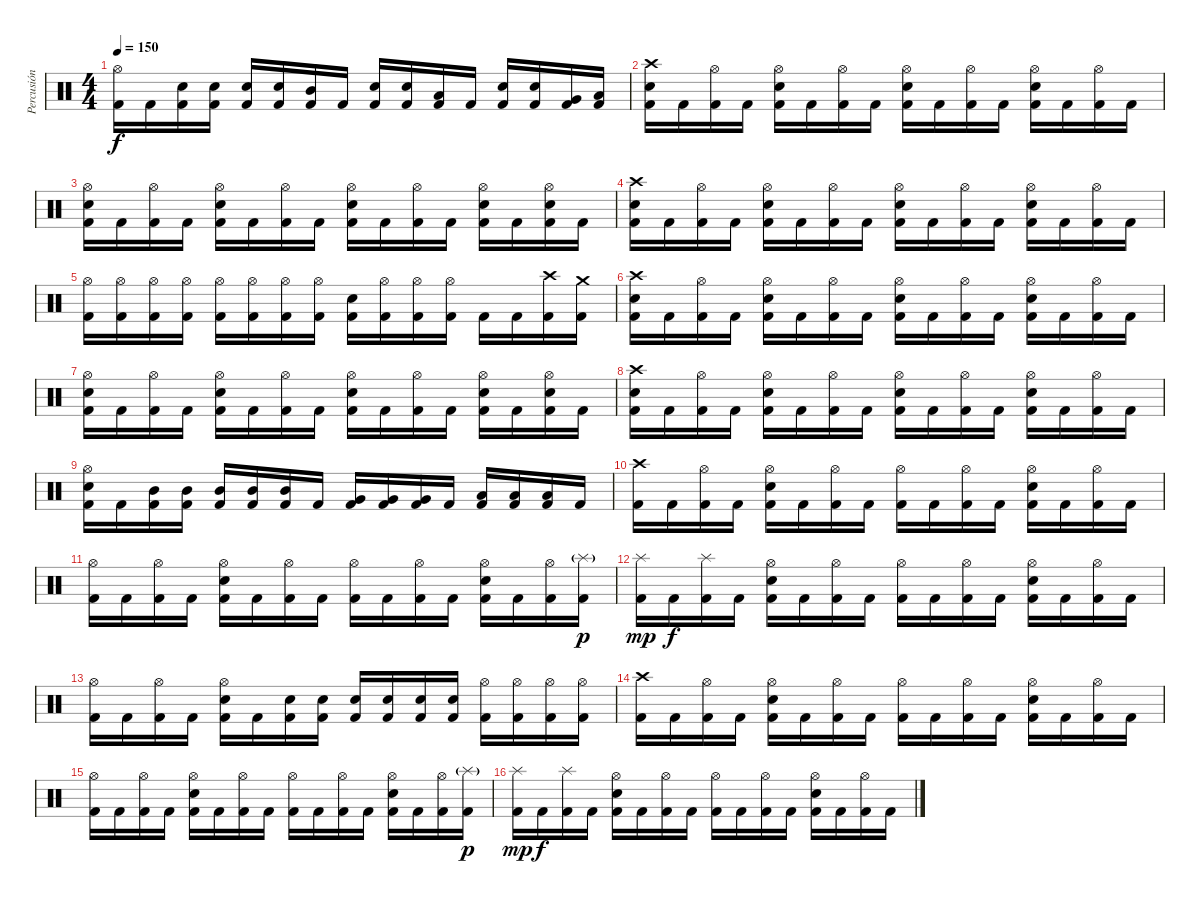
\track ("Percusión" "Percusión") {instrument percussion}
\staff {score}
\articulation defaults
\ts (4 4)
\tempo 150
\clef neutral
\ks c
("Hi-Hat (open)" "Kick (hit) 2").16{dy f} "Kick (hit) 2".16 ("Snare (hit) 2" "Kick (hit) 2").16 ("Snare (hit) 2" "Kick (hit) 2").16 ("Snare (hit) 2" "Kick (hit) 2").16 ("Snare (hit) 2" "Kick (hit) 2").16 ("Mid Tom (hit)" "Kick (hit) 2").16 "Kick (hit) 2".16 ("Snare (hit) 2" "Kick (hit) 2").16 ("Snare (hit) 2" "Kick (hit) 2").16 ("Low Tom (hit)" "Kick (hit) 2").16 "Kick (hit) 2".16 ("Snare (hit) 2" "Kick (hit) 2").16 ("Snare (hit) 2" "Kick (hit) 2").16 ("Very Low Tom (hit)" "Kick (hit) 2").16 ("Low Floor Tom (hit)" "Kick (hit) 2").16 |
("Crash high (hit)" "Snare (hit) 2" "Kick (hit) 2").16 "Kick (hit) 2".16 ("Hi-Hat (open)" "Kick (hit) 2").16 "Kick (hit) 2".16 ("Hi-Hat (open)" "Snare (hit) 2" "Kick (hit) 2").16 "Kick (hit) 2".16 ("Hi-Hat (open)" "Kick (hit) 2").16 "Kick (hit) 2".16 ("Hi-Hat (open)" "Snare (hit) 2" "Kick (hit) 2").16 "Kick (hit) 2".16 ("Hi-Hat (open)" "Kick (hit) 2").16 "Kick (hit) 2".16 ("Hi-Hat (open)" "Snare (hit) 2" "Kick (hit) 2").16 "Kick (hit) 2".16 ("Hi-Hat (open)" "Kick (hit) 2").16 "Kick (hit) 2".16 |
("Hi-Hat (open)" "Snare (hit) 2" "Kick (hit) 2").16 "Kick (hit) 2".16 ("Hi-Hat (open)" "Kick (hit) 2").16 "Kick (hit) 2".16 ("Hi-Hat (open)" "Snare (hit) 2" "Kick (hit) 2").16 "Kick (hit) 2".16 ("Hi-Hat (open)" "Kick (hit) 2").16 "Kick (hit) 2".16 ("Hi-Hat (open)" "Snare (hit) 2" "Kick (hit) 2").16 "Kick (hit) 2".16 ("Hi-Hat (open)" "Kick (hit) 2").16 "Kick (hit) 2".16 ("Hi-Hat (open)" "Snare (hit) 2" "Kick (hit) 2").16 "Kick (hit) 2".16 ("Hi-Hat (open)" "Snare (hit) 2" "Kick (hit) 2").16 "Kick (hit) 2".16 |
("Crash high (hit)" "Snare (hit) 2" "Kick (hit) 2").16 "Kick (hit) 2".16 ("Hi-Hat (open)" "Kick (hit) 2").16 "Kick (hit) 2".16 ("Hi-Hat (open)" "Snare (hit) 2" "Kick (hit) 2").16 "Kick (hit) 2".16 ("Hi-Hat (open)" "Kick (hit) 2").16 "Kick (hit) 2".16 ("Hi-Hat (open)" "Snare (hit) 2" "Kick (hit) 2").16 "Kick (hit) 2".16 ("Hi-Hat (open)" "Kick (hit) 2").16 "Kick (hit) 2".16 ("Hi-Hat (open)" "Snare (hit) 2" "Kick (hit) 2").16 "Kick (hit) 2".16 ("Hi-Hat (open)" "Kick (hit) 2").16 "Kick (hit) 2".16 |
("Hi-Hat (open)" "Kick (hit) 2").16 ("Hi-Hat (open)" "Kick (hit) 2").16 ("Hi-Hat (open)" "Kick (hit) 2").16 ("Hi-Hat (open)" "Kick (hit) 2").16 ("Hi-Hat (open)" "Kick (hit) 2").16 ("Hi-Hat (open)" "Kick (hit) 2").16 ("Hi-Hat (open)" "Kick (hit) 2").16 ("Hi-Hat (open)" "Kick (hit) 2").16 ("Snare (hit) 2" "Kick (hit) 2").16 ("Hi-Hat (open)" "Kick (hit) 2").16 ("Hi-Hat (open)" "Kick (hit) 2").16 ("Hi-Hat (open)" "Kick (hit) 2").16 "Kick (hit) 2".16 "Kick (hit) 2".16 ("Crash high (hit)" "Kick (hit) 2").16 ("Crash medium (hit)" "Kick (hit) 2").16 |
("Crash high (hit)" "Snare (hit) 2" "Kick (hit) 2").16 "Kick (hit) 2".16 ("Hi-Hat (open)" "Kick (hit) 2").16 "Kick (hit) 2".16 ("Hi-Hat (open)" "Snare (hit) 2" "Kick (hit) 2").16 "Kick (hit) 2".16 ("Hi-Hat (open)" "Kick (hit) 2").16 "Kick (hit) 2".16 ("Hi-Hat (open)" "Snare (hit) 2" "Kick (hit) 2").16 "Kick (hit) 2".16 ("Hi-Hat (open)" "Kick (hit) 2").16 "Kick (hit) 2".16 ("Hi-Hat (open)" "Snare (hit) 2" "Kick (hit) 2").16 "Kick (hit) 2".16 ("Hi-Hat (open)" "Kick (hit) 2").16 "Kick (hit) 2".16 |
("Hi-Hat (open)" "Snare (hit) 2" "Kick (hit) 2").16 "Kick (hit) 2".16 ("Hi-Hat (open)" "Kick (hit) 2").16 "Kick (hit) 2".16 ("Hi-Hat (open)" "Snare (hit) 2" "Kick (hit) 2").16 "Kick (hit) 2".16 ("Hi-Hat (open)" "Kick (hit) 2").16 "Kick (hit) 2".16 ("Hi-Hat (open)" "Snare (hit) 2" "Kick (hit) 2").16 "Kick (hit) 2".16 ("Hi-Hat (open)" "Kick (hit) 2").16 "Kick (hit) 2".16 ("Hi-Hat (open)" "Snare (hit) 2" "Kick (hit) 2").16 "Kick (hit) 2".16 ("Hi-Hat (open)" "Snare (hit) 2" "Kick (hit) 2").16 "Kick (hit) 2".16 |
("Crash high (hit)" "Snare (hit) 2" "Kick (hit) 2").16 "Kick (hit) 2".16 ("Hi-Hat (open)" "Kick (hit) 2").16 "Kick (hit) 2".16 ("Hi-Hat (open)" "Snare (hit) 2" "Kick (hit) 2").16 "Kick (hit) 2".16 ("Hi-Hat (open)" "Kick (hit) 2").16 "Kick (hit) 2".16 ("Hi-Hat (open)" "Snare (hit) 2" "Kick (hit) 2").16 "Kick (hit) 2".16 ("Hi-Hat (open)" "Kick (hit) 2").16 "Kick (hit) 2".16 ("Hi-Hat (open)" "Snare (hit) 2" "Kick (hit) 2").16 "Kick (hit) 2".16 ("Hi-Hat (open)" "Kick (hit) 2").16 "Kick (hit) 2".16 |
("Hi-Hat (open)" "Snare (hit) 2" "Kick (hit) 2").16 "Kick (hit) 2".16 ("Mid Tom (hit)" "Kick (hit) 2").16 ("Mid Tom (hit)" "Kick (hit) 2").16 ("Mid Tom (hit)" "Kick (hit) 2").16 ("Mid Tom (hit)" "Kick (hit) 2").16 ("Mid Tom (hit)" "Kick (hit) 2").16 "Kick (hit) 2".16 ("Very Low Tom (hit)" "Kick (hit) 2").16 ("Very Low Tom (hit)" "Kick (hit) 2").16 ("Very Low Tom (hit)" "Kick (hit) 2").16 "Kick (hit) 2".16 ("Low Floor Tom (hit)" "Kick (hit) 2").16 ("Low Floor Tom (hit)" "Kick (hit) 2").16 ("Low Floor Tom (hit)" "Kick (hit) 2").16 "Kick (hit) 2".16 |
("Crash high (hit)" "Kick (hit) 2").16 "Kick (hit) 2".16 ("Hi-Hat (open)" "Kick (hit) 2").16 "Kick (hit) 2".16 ("Hi-Hat (open)" "Snare (hit) 2" "Kick (hit) 2").16 "Kick (hit) 2".16 ("Hi-Hat (open)" "Kick (hit) 2").16 "Kick (hit) 2".16 ("Hi-Hat (open)" "Kick (hit) 2").16 "Kick (hit) 2".16 ("Hi-Hat (open)" "Kick (hit) 2").16 "Kick (hit) 2".16 ("Hi-Hat (open)" "Snare (hit) 2" "Kick (hit) 2").16 "Kick (hit) 2".16 ("Hi-Hat (open)" "Kick (hit) 2").16 "Kick (hit) 2".16 |
("Hi-Hat (open)" "Kick (hit) 2").16 "Kick (hit) 2".16 ("Hi-Hat (open)" "Kick (hit) 2").16 "Kick (hit) 2".16 ("Hi-Hat (open)" "Snare (hit) 2" "Kick (hit) 2").16 "Kick (hit) 2".16 ("Hi-Hat (open)" "Kick (hit) 2").16 "Kick (hit) 2".16 ("Hi-Hat (open)" "Kick (hit) 2").16 "Kick (hit) 2".16 ("Hi-Hat (open)" "Kick (hit) 2").16 "Kick (hit) 2".16 ("Hi-Hat (open)" "Snare (hit) 2" "Kick (hit) 2").16 "Kick (hit) 2".16 ("Hi-Hat (open)" "Kick (hit) 2").16 ("Splash (hit)"{g} "Kick (hit) 2").16{dy p} |
("Splash (hit)" "Kick (hit) 2").16{dy mp} "Kick (hit) 2".16{dy f} ("Splash (hit)" "Kick (hit) 2").16 "Kick (hit) 2".16 ("Hi-Hat (open)" "Snare (hit) 2" "Kick (hit) 2").16 "Kick (hit) 2".16 ("Hi-Hat (open)" "Kick (hit) 2").16 "Kick (hit) 2".16 ("Hi-Hat (open)" "Kick (hit) 2").16 "Kick (hit) 2".16 ("Hi-Hat (open)" "Kick (hit) 2").16 "Kick (hit) 2".16 ("Hi-Hat (open)" "Snare (hit) 2" "Kick (hit) 2").16 "Kick (hit) 2".16 ("Hi-Hat (open)" "Kick (hit) 2").16 "Kick (hit) 2".16 |
("Hi-Hat (open)" "Kick (hit) 2").16 "Kick (hit) 2".16 ("Hi-Hat (open)" "Kick (hit) 2").16 "Kick (hit) 2".16 ("Hi-Hat (open)" "Snare (hit) 2" "Kick (hit) 2").16 "Kick (hit) 2".16 ("Snare (hit) 2" "Kick (hit) 2").16 ("Snare (hit) 2" "Kick (hit) 2").16 ("Snare (hit) 2" "Kick (hit) 2").16 ("Snare (hit) 2" "Kick (hit) 2").16 ("Snare (hit) 2" "Kick (hit) 2").16 ("Snare (hit) 2" "Kick (hit) 2").16 ("Hi-Hat (open)" "Kick (hit) 2").16 ("Hi-Hat (open)" "Kick (hit) 2").16 ("Hi-Hat (open)" "Kick (hit) 2").16 ("Hi-Hat (open)" "Kick (hit) 2").16 |
("Crash high (hit)" "Kick (hit) 2").16 "Kick (hit) 2".16 ("Hi-Hat (open)" "Kick (hit) 2").16 "Kick (hit) 2".16 ("Hi-Hat (open)" "Snare (hit) 2" "Kick (hit) 2").16 "Kick (hit) 2".16 ("Hi-Hat (open)" "Kick (hit) 2").16 "Kick (hit) 2".16 ("Hi-Hat (open)" "Kick (hit) 2").16 "Kick (hit) 2".16 ("Hi-Hat (open)" "Kick (hit) 2").16 "Kick (hit) 2".16 ("Hi-Hat (open)" "Snare (hit) 2" "Kick (hit) 2").16 "Kick (hit) 2".16 ("Hi-Hat (open)" "Kick (hit) 2").16 "Kick (hit) 2".16 |
("Hi-Hat (open)" "Kick (hit) 2").16 "Kick (hit) 2".16 ("Hi-Hat (open)" "Kick (hit) 2").16 "Kick (hit) 2".16 ("Hi-Hat (open)" "Snare (hit) 2" "Kick (hit) 2").16 "Kick (hit) 2".16 ("Hi-Hat (open)" "Kick (hit) 2").16 "Kick (hit) 2".16 ("Hi-Hat (open)" "Kick (hit) 2").16 "Kick (hit) 2".16 ("Hi-Hat (open)" "Kick (hit) 2").16 "Kick (hit) 2".16 ("Hi-Hat (open)" "Snare (hit) 2" "Kick (hit) 2").16 "Kick (hit) 2".16 ("Hi-Hat (open)" "Kick (hit) 2").16 ("Splash (hit)"{g} "Kick (hit) 2").16{dy p} |
("Splash (hit)" "Kick (hit) 2").16{dy mp} "Kick (hit) 2".16{dy f} ("Splash (hit)" "Kick (hit) 2").16 "Kick (hit) 2".16 ("Hi-Hat (open)" "Snare (hit) 2" "Kick (hit) 2").16 "Kick (hit) 2".16 ("Hi-Hat (open)" "Kick (hit) 2").16 "Kick (hit) 2".16 ("Hi-Hat (open)" "Kick (hit) 2").16 "Kick (hit) 2".16 ("Hi-Hat (open)" "Kick (hit) 2").16 "Kick (hit) 2".16 ("Hi-Hat (open)" "Snare (hit) 2" "Kick (hit) 2").16 "Kick (hit) 2".16 ("Hi-Hat (open)" "Kick (hit) 2").16 "Kick (hit) 2".16
